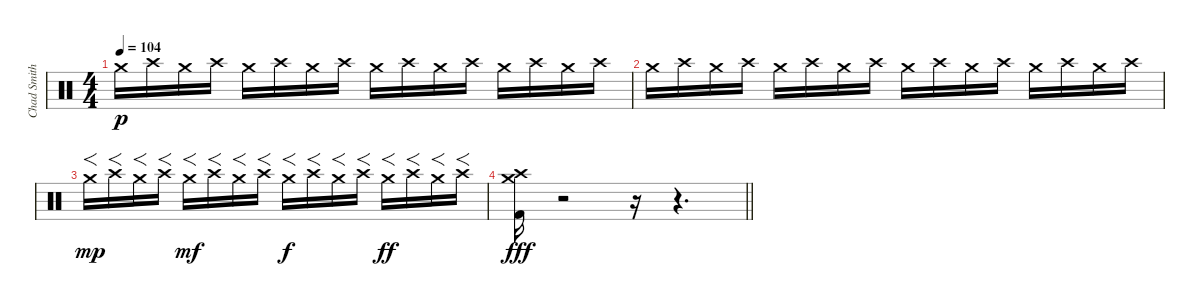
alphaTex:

\track ("Chad Smith" "Chad Smith") {instrument percussion}
\staff {score}
\articulation defaults
\ts (4 4)
\tempo 104
\clef neutral
\ks c "Crash medium (hit)".16{dy p} "Crash high (hit)".16 "Crash medium (hit)".16 "Crash high (hit)".16 "Crash medium (hit)".16 "Crash high (hit)".16 "Crash medium (hit)".16 "Crash high (hit)".16 "Crash medium (hit)".16 "Crash high (hit)".16 "Crash medium (hit)".16 "Crash high (hit)".16 "Crash medium (hit)".16 "Crash high (hit)".16 "Crash medium (hit)".16 "Crash high (hit)".16
|
"Crash medium (hit)".16 "Crash high (hit)".16 "Crash medium (hit)".16 "Crash high (hit)".16 "Crash medium (hit)".16 "Crash high (hit)".16 "Crash medium (hit)".16 "Crash high (hit)".16 "Crash medium (hit)".16 "Crash high (hit)".16 "Crash medium (hit)".16 "Crash high (hit)".16 "Crash medium (hit)".16 "Crash high (hit)".16 "Crash medium (hit)".16 "Crash high (hit)".16 |
"Crash medium (hit)".16{f dy mp} "Crash high (hit)".16{f} "Crash medium (hit)".16{f} "Crash high (hit)".16{f} "Crash medium (hit)".16{f dy mf} "Crash high (hit)".16{f} "Crash medium (hit)".16{f} "Crash high (hit)".16{f} "Crash medium (hit)".16{f dy f} "Crash high (hit)".16{f} "Crash medium (hit)".16{f} "Crash high (hit)".16{f} "Crash medium (hit)".16{f dy ff} "Crash high (hit)".16{f} "Crash medium (hit)".16{f} "Crash high (hit)".16{f} |
\barLineRight lightlight
("Crash high (hit)" "Crash medium (hit)" "Kick (hit) 2").16{dy fff} r.2 r.16 r.4{d}
